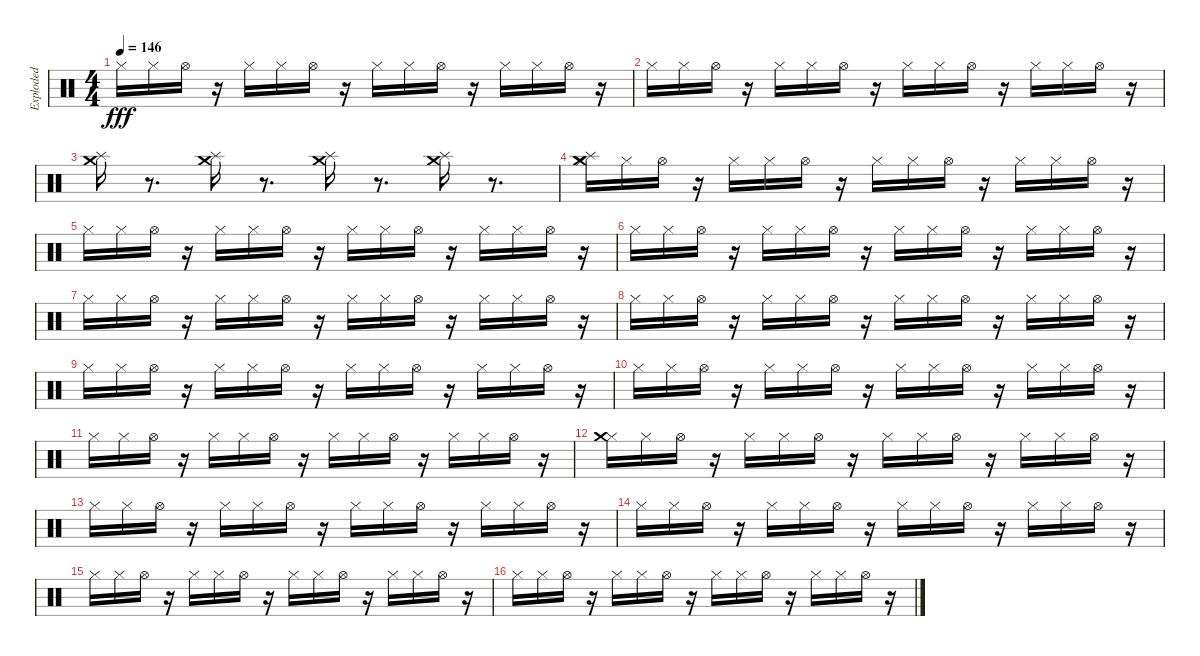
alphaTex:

\track ("Exploded" "Exploded") {instrument percussion}
\staff {score}
\articulation defaults
\ts (4 4)
\tempo 146
\clef neutral
\ks c "Hi-Hat (closed)".16{dy fff} "Hi-Hat (closed)".16 "Hi-Hat (open)".16
r.16 "Hi-Hat (closed)".16 "Hi-Hat (closed)".16 "Hi-Hat (open)".16 r.16 "Hi-Hat (closed)".16 "Hi-Hat (closed)".16 "Hi-Hat (open)".16 r.16 "Hi-Hat (closed)".16 "Hi-Hat (closed)".16 "Hi-Hat (open)".16 r.16 |
"Hi-Hat (closed)".16 "Hi-Hat (closed)".16 "Hi-Hat (open)".16 r.16 "Hi-Hat (closed)".16 "Hi-Hat (closed)".16 "Hi-Hat (open)".16 r.16 "Hi-Hat (closed)".16 "Hi-Hat (closed)".16 "Hi-Hat (open)".16 r.16 "Hi-Hat (closed)".16 "Hi-Hat (closed)".16 "Hi-Hat (open)".16 r.16 |
("Crash medium (hit)" "Splash (hit)").16 r.8{d} ("Crash medium (hit)" "Splash (hit)").16 r.8{d} ("Crash medium (hit)" "Splash (hit)").16 r.8{d} ("Crash medium (hit)" "Splash (hit)").16 r.8{d} |
("Splash (hit)" "Crash medium (hit)" "Hi-Hat (closed)").16 "Hi-Hat (closed)".16 "Hi-Hat (open)".16 r.16 "Hi-Hat (closed)".16 "Hi-Hat (closed)".16 "Hi-Hat (open)".16 r.16 "Hi-Hat (closed)".16 "Hi-Hat (closed)".16 "Hi-Hat (open)".16 r.16 "Hi-Hat (closed)".16 "Hi-Hat (closed)".16 "Hi-Hat (open)".16 r.16 |
"Hi-Hat (closed)".16 "Hi-Hat (closed)".16 "Hi-Hat (open)".16 r.16 "Hi-Hat (closed)".16 "Hi-Hat (closed)".16 "Hi-Hat (open)".16 r.16 "Hi-Hat (closed)".16 "Hi-Hat (closed)".16 "Hi-Hat (open)".16 r.16 "Hi-Hat (closed)".16 "Hi-Hat (closed)".16 "Hi-Hat (open)".16 r.16 |
"Hi-Hat (closed)".16 "Hi-Hat (closed)".16 "Hi-Hat (open)".16 r.16 "Hi-Hat (closed)".16 "Hi-Hat (closed)".16 "Hi-Hat (open)".16 r.16 "Hi-Hat (closed)".16 "Hi-Hat (closed)".16 "Hi-Hat (open)".16 r.16 "Hi-Hat (closed)".16 "Hi-Hat (closed)".16 "Hi-Hat (open)".16 r.16 |
"Hi-Hat (closed)".16 "Hi-Hat (closed)".16 "Hi-Hat (open)".16 r.16 "Hi-Hat (closed)".16 "Hi-Hat (closed)".16 "Hi-Hat (open)".16 r.16 "Hi-Hat (closed)".16 "Hi-Hat (closed)".16 "Hi-Hat (open)".16 r.16 "Hi-Hat (closed)".16 "Hi-Hat (closed)".16 "Hi-Hat (open)".16 r.16 |
"Hi-Hat (closed)".16 "Hi-Hat (closed)".16 "Hi-Hat (open)".16 r.16 "Hi-Hat (closed)".16 "Hi-Hat (closed)".16 "Hi-Hat (open)".16 r.16 "Hi-Hat (closed)".16 "Hi-Hat (closed)".16 "Hi-Hat (open)".16 r.16 "Hi-Hat (closed)".16 "Hi-Hat (closed)".16 "Hi-Hat (open)".16 r.16 |
"Hi-Hat (closed)".16 "Hi-Hat (closed)".16 "Hi-Hat (open)".16 r.16 "Hi-Hat (closed)".16 "Hi-Hat (closed)".16 "Hi-Hat (open)".16 r.16 "Hi-Hat (closed)".16 "Hi-Hat (closed)".16 "Hi-Hat (open)".16 r.16 "Hi-Hat (closed)".16 "Hi-Hat (closed)".16 "Hi-Hat (open)".16 r.16 |
"Hi-Hat (closed)".16 "Hi-Hat (closed)".16 "Hi-Hat (open)".16 r.16 "Hi-Hat (closed)".16 "Hi-Hat (closed)".16 "Hi-Hat (open)".16 r.16 "Hi-Hat (closed)".16 "Hi-Hat (closed)".16 "Hi-Hat (open)".16 r.16 "Hi-Hat (closed)".16 "Hi-Hat (closed)".16 "Hi-Hat (open)".16 r.16 |
"Hi-Hat (closed)".16 "Hi-Hat (closed)".16 "Hi-Hat (open)".16 r.16 "Hi-Hat (closed)".16 "Hi-Hat (closed)".16 "Hi-Hat (open)".16 r.16 "Hi-Hat (closed)".16 "Hi-Hat (closed)".16 "Hi-Hat (open)".16 r.16 "Hi-Hat (closed)".16 "Hi-Hat (closed)".16 "Hi-Hat (open)".16 r.16 |
("Hi-Hat (closed)" "Crash medium (hit)").16 "Hi-Hat (closed)".16 "Hi-Hat (open)".16 r.16 "Hi-Hat (closed)".16 "Hi-Hat (closed)".16 "Hi-Hat (open)".16 r.16 "Hi-Hat (closed)".16 "Hi-Hat (closed)".16 "Hi-Hat (open)".16 r.16 "Hi-Hat (closed)".16 "Hi-Hat (closed)".16 "Hi-Hat (open)".16 r.16 |
"Hi-Hat (closed)".16 "Hi-Hat (closed)".16 "Hi-Hat (open)".16 r.16 "Hi-Hat (closed)".16 "Hi-Hat (closed)".16 "Hi-Hat (open)".16 r.16 "Hi-Hat (closed)".16 "Hi-Hat (closed)".16 "Hi-Hat (open)".16 r.16 "Hi-Hat (closed)".16 "Hi-Hat (closed)".16 "Hi-Hat (open)".16 r.16 |
"Hi-Hat (closed)".16 "Hi-Hat (closed)".16 "Hi-Hat (open)".16 r.16 "Hi-Hat (closed)".16 "Hi-Hat (closed)".16 "Hi-Hat (open)".16 r.16 "Hi-Hat (closed)".16 "Hi-Hat (closed)".16 "Hi-Hat (open)".16 r.16 "Hi-Hat (closed)".16 "Hi-Hat (closed)".16 "Hi-Hat (open)".16 r.16 |
"Hi-Hat (closed)".16 "Hi-Hat (closed)".16 "Hi-Hat (open)".16 r.16 "Hi-Hat (closed)".16 "Hi-Hat (closed)".16 "Hi-Hat (open)".16 r.16 "Hi-Hat (closed)".16 "Hi-Hat (closed)".16 "Hi-Hat (open)".16 r.16 "Hi-Hat (closed)".16 "Hi-Hat (closed)".16 "Hi-Hat (open)".16 r.16 |
"Hi-Hat (closed)".16 "Hi-Hat (closed)".16 "Hi-Hat (open)".16 r.16 "Hi-Hat (closed)".16 "Hi-Hat (closed)".16 "Hi-Hat (open)".16 r.16 "Hi-Hat (closed)".16 "Hi-Hat (closed)".16 "Hi-Hat (open)".16 r.16 "Hi-Hat (closed)".16 "Hi-Hat (closed)".16 "Hi-Hat (open)".16 r.16
